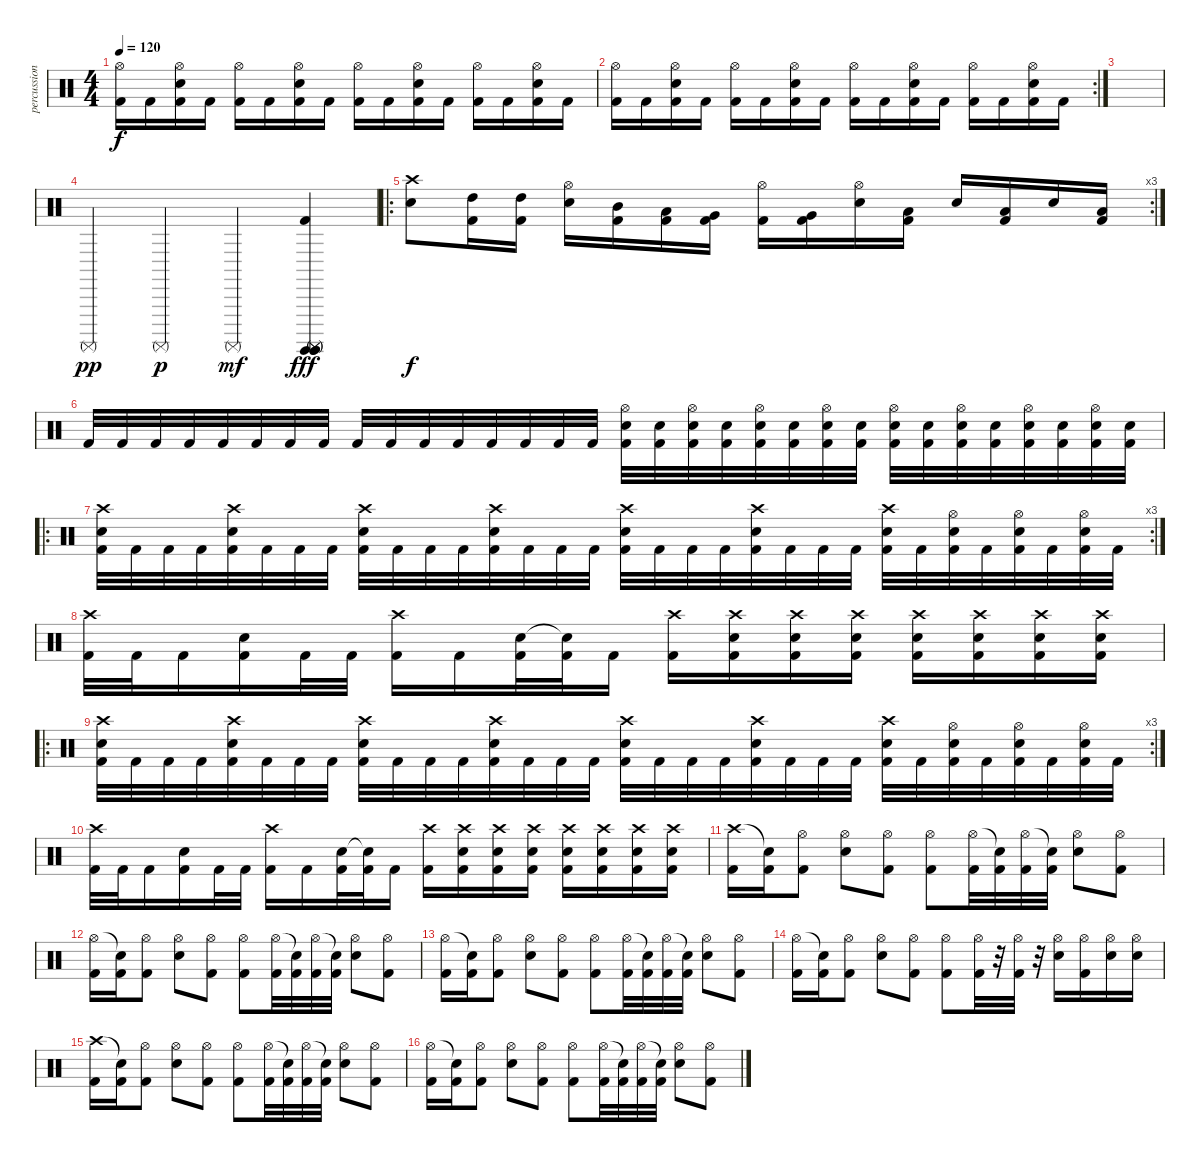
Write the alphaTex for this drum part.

\track ("percussions" "percussion") {instrument percussion}
\staff {score}
\articulation defaults
\ts (4 4)
\tempo 120
\clef neutral
\ks c
("Hi-Hat (open)" "Kick (hit) 2").16{dy f} "Kick (hit) 2".16 ("Hi-Hat (open)" "Electric Snare (hit)" "Kick (hit) 2").16 "Kick (hit) 2".16 ("Hi-Hat (open)" "Kick (hit) 2").16 "Kick (hit) 2".16 ("Hi-Hat (open)" "Electric Snare (hit)" "Kick (hit) 2").16 "Kick (hit) 2".16 ("Hi-Hat (open)" "Kick (hit) 2").16 "Kick (hit) 2".16 ("Hi-Hat (open)" "Electric Snare (hit)" "Kick (hit) 2").16 "Kick (hit) 2".16 ("Hi-Hat (open)" "Kick (hit) 2").16 "Kick (hit) 2".16 ("Hi-Hat (open)" "Electric Snare (hit)" "Kick (hit) 2").16 "Kick (hit) 2".16 |
\rc 2
("Hi-Hat (open)" "Kick (hit) 2").16 "Kick (hit) 2".16 ("Hi-Hat (open)" "Electric Snare (hit)" "Kick (hit) 2").16 "Kick (hit) 2".16 ("Hi-Hat (open)" "Kick (hit) 2").16 "Kick (hit) 2".16 ("Hi-Hat (open)" "Electric Snare (hit)" "Kick (hit) 2").16 "Kick (hit) 2".16 ("Hi-Hat (open)" "Kick (hit) 2").16 "Kick (hit) 2".16 ("Hi-Hat (open)" "Electric Snare (hit)" "Kick (hit) 2").16 "Kick (hit) 2".16 ("Hi-Hat (open)" "Kick (hit) 2").16 "Kick (hit) 2".16 ("Hi-Hat (open)" "Electric Snare (hit)" "Kick (hit) 2").16 "Kick (hit) 2".16 |
|
"Surdo (mute)".4{dy pp} "Surdo (mute)".4{dy p} "Surdo (mute)".4{dy mf} ("Kick (hit) 2" "Surdo (hit)" "Surdo (hit)" "Surdo (hit)" "Surdo (mute)" "Surdo (mute)").4{dy fff} |
\ro
\rc 3
("Crash high (hit)" "Electric Snare (hit)").8{dy f} ("High Tom (hit)" "Kick (hit) 2").16 ("High Tom (hit)" "Kick (hit) 2").16 ("Hi-Hat (open)" "Electric Snare (hit)").16 ("Mid Tom (hit)" "Kick (hit) 2").16 ("Low Tom (hit)" "Kick (hit) 2").16 ("Very Low Tom (hit)" "Kick (hit) 2").16 ("Hi-Hat (open)" "Kick (hit) 2").16 ("Very Low Tom (hit)" "Kick (hit) 2").16 ("Hi-Hat (open)" "Electric Snare (hit)").16 ("Low Floor Tom (hit)" "Kick (hit) 2").16 "Electric Snare (hit)".16 ("Low Floor Tom (hit)" "Kick (hit) 2").16 "Electric Snare (hit)".16 ("Low Floor Tom (hit)" "Kick (hit) 2").16 |
"Kick (hit) 2".32 "Kick (hit) 2".32 "Kick (hit) 2".32 "Kick (hit) 2".32 "Kick (hit) 2".32 "Kick (hit) 2".32 "Kick (hit) 2".32 "Kick (hit) 2".32 "Kick (hit) 2".32 "Kick (hit) 2".32 "Kick (hit) 2".32 "Kick (hit) 2".32 "Kick (hit) 2".32 "Kick (hit) 2".32 "Kick (hit) 2".32 "Kick (hit) 2".32 ("Hi-Hat (open)" "Kick (hit) 2" "Electric Snare (hit)").32 ("Kick (hit) 2" "Electric Snare (hit)").32 ("Hi-Hat (open)" "Kick (hit) 2" "Electric Snare (hit)").32 ("Kick (hit) 2" "Electric Snare (hit)").32 ("Hi-Hat (open)" "Kick (hit) 2" "Electric Snare (hit)").32 ("Kick (hit) 2" "Electric Snare (hit)").32 ("Hi-Hat (open)" "Kick (hit) 2" "Electric Snare (hit)").32 ("Kick (hit) 2" "Electric Snare (hit)").32 ("Hi-Hat (open)" "Kick (hit) 2" "Electric Snare (hit)").32 ("Kick (hit) 2" "Electric Snare (hit)").32 ("Hi-Hat (open)" "Kick (hit) 2" "Electric Snare (hit)").32 ("Kick (hit) 2" "Electric Snare (hit)").32 ("Hi-Hat (open)" "Kick (hit) 2" "Electric Snare (hit)").32 ("Kick (hit) 2" "Electric Snare (hit)").32 ("Hi-Hat (open)" "Kick (hit) 2" "Electric Snare (hit)").32 ("Kick (hit) 2" "Electric Snare (hit)").32 |
\ro
\rc 3
("Crash high (hit)" "Electric Snare (hit)" "Kick (hit) 2").32 "Kick (hit) 2".32 "Kick (hit) 2".32 "Kick (hit) 2".32 ("Crash high (hit)" "Electric Snare (hit)" "Kick (hit) 2").32 "Kick (hit) 2".32 "Kick (hit) 2".32 "Kick (hit) 2".32 ("Crash high (hit)" "Electric Snare (hit)" "Kick (hit) 2").32 "Kick (hit) 2".32 "Kick (hit) 2".32 "Kick (hit) 2".32 ("Crash high (hit)" "Electric Snare (hit)" "Kick (hit) 2").32 "Kick (hit) 2".32 "Kick (hit) 2".32 "Kick (hit) 2".32 ("Crash high (hit)" "Electric Snare (hit)" "Kick (hit) 2").32 "Kick (hit) 2".32 "Kick (hit) 2".32 "Kick (hit) 2".32 ("Crash high (hit)" "Electric Snare (hit)" "Kick (hit) 2").32 "Kick (hit) 2".32 "Kick (hit) 2".32 "Kick (hit) 2".32 ("Crash high (hit)" "Electric Snare (hit)" "Kick (hit) 2").32 "Kick (hit) 2".32 ("Hi-Hat (open)" "Electric Snare (hit)" "Kick (hit) 2").32 "Kick (hit) 2".32 ("Hi-Hat (open)" "Electric Snare (hit)" "Kick (hit) 2").32 "Kick (hit) 2".32 ("Hi-Hat (open)" "Electric Snare (hit)" "Kick (hit) 2").32 "Kick (hit) 2".32 |
("Crash high (hit)" "Kick (hit) 2").32 "Kick (hit) 2".32 "Kick (hit) 2".16 ("Electric Snare (hit)" "Kick (hit) 2").16 "Kick (hit) 2".32 "Kick (hit) 2".32 ("Crash high (hit)" "Kick (hit) 2").16 "Kick (hit) 2".16 ("Electric Snare (hit)" "Kick (hit) 2").32 ("Electric Snare (hit)"{t} "Kick (hit) 2").32 "Kick (hit) 2".16 ("Crash high (hit)" "Kick (hit) 2").16 ("Crash high (hit)" "Electric Snare (hit)" "Kick (hit) 2").16 ("Crash high (hit)" "Electric Snare (hit)" "Kick (hit) 2").16 ("Crash high (hit)" "Electric Snare (hit)" "Kick (hit) 2").16 ("Crash high (hit)" "Electric Snare (hit)" "Kick (hit) 2").16 ("Crash high (hit)" "Electric Snare (hit)" "Kick (hit) 2").16 ("Crash high (hit)" "Electric Snare (hit)" "Kick (hit) 2").16 ("Crash high (hit)" "Electric Snare (hit)" "Kick (hit) 2").16 |
\ro
\rc 3
("Crash high (hit)" "Electric Snare (hit)" "Kick (hit) 2").32 "Kick (hit) 2".32 "Kick (hit) 2".32 "Kick (hit) 2".32 ("Crash high (hit)" "Electric Snare (hit)" "Kick (hit) 2").32 "Kick (hit) 2".32 "Kick (hit) 2".32 "Kick (hit) 2".32 ("Crash high (hit)" "Electric Snare (hit)" "Kick (hit) 2").32 "Kick (hit) 2".32 "Kick (hit) 2".32 "Kick (hit) 2".32 ("Crash high (hit)" "Electric Snare (hit)" "Kick (hit) 2").32 "Kick (hit) 2".32 "Kick (hit) 2".32 "Kick (hit) 2".32 ("Crash high (hit)" "Electric Snare (hit)" "Kick (hit) 2").32 "Kick (hit) 2".32 "Kick (hit) 2".32 "Kick (hit) 2".32 ("Crash high (hit)" "Electric Snare (hit)" "Kick (hit) 2").32 "Kick (hit) 2".32 "Kick (hit) 2".32 "Kick (hit) 2".32 ("Crash high (hit)" "Electric Snare (hit)" "Kick (hit) 2").32 "Kick (hit) 2".32 ("Hi-Hat (open)" "Electric Snare (hit)" "Kick (hit) 2").32 "Kick (hit) 2".32 ("Hi-Hat (open)" "Electric Snare (hit)" "Kick (hit) 2").32 "Kick (hit) 2".32 ("Hi-Hat (open)" "Electric Snare (hit)" "Kick (hit) 2").32 "Kick (hit) 2".32 |
("Crash high (hit)" "Kick (hit) 2").32 "Kick (hit) 2".32 "Kick (hit) 2".16 ("Electric Snare (hit)" "Kick (hit) 2").16 "Kick (hit) 2".32 "Kick (hit) 2".32 ("Crash high (hit)" "Kick (hit) 2").16 "Kick (hit) 2".16 ("Electric Snare (hit)" "Kick (hit) 2").32 ("Electric Snare (hit)"{t} "Kick (hit) 2").32 "Kick (hit) 2".16 ("Crash high (hit)" "Kick (hit) 2").16 ("Crash high (hit)" "Electric Snare (hit)" "Kick (hit) 2").16 ("Crash high (hit)" "Electric Snare (hit)" "Kick (hit) 2").16 ("Crash high (hit)" "Electric Snare (hit)" "Kick (hit) 2").16 ("Crash high (hit)" "Electric Snare (hit)" "Kick (hit) 2").16 ("Crash high (hit)" "Electric Snare (hit)" "Kick (hit) 2").16 ("Crash high (hit)" "Electric Snare (hit)" "Kick (hit) 2").16 ("Crash high (hit)" "Electric Snare (hit)" "Kick (hit) 2").16 |
("Crash high (hit)" "Kick (hit) 2").16 ("Snare (hit)"{t} "Kick (hit) 2").16 ("Hi-Hat (open)" "Kick (hit) 2").8 ("Hi-Hat (open)" "Electric Snare (hit)").8 ("Hi-Hat (open)" "Kick (hit) 2").8 ("Hi-Hat (open)" "Kick (hit) 2").8 ("Hi-Hat (open)" "Kick (hit) 2").32 ("Snare (hit)"{t} "Kick (hit) 2").32 ("Hi-Hat (open)" "Kick (hit) 2").32 ("Snare (hit)"{t} "Kick (hit) 2").32 ("Hi-Hat (open)" "Electric Snare (hit)").8 ("Hi-Hat (open)" "Kick (hit) 2").8 |
("Hi-Hat (open)" "Kick (hit) 2").16 ("Snare (hit)"{t} "Kick (hit) 2").16 ("Hi-Hat (open)" "Kick (hit) 2").8 ("Hi-Hat (open)" "Electric Snare (hit)").8 ("Hi-Hat (open)" "Kick (hit) 2").8 ("Hi-Hat (open)" "Kick (hit) 2").8 ("Hi-Hat (open)" "Kick (hit) 2").32 ("Snare (hit)"{t} "Kick (hit) 2").32 ("Hi-Hat (open)" "Kick (hit) 2").32 ("Snare (hit)"{t} "Kick (hit) 2").32 ("Hi-Hat (open)" "Electric Snare (hit)").8 ("Hi-Hat (open)" "Kick (hit) 2").8 |
("Hi-Hat (open)" "Kick (hit) 2").16 ("Snare (hit)"{t} "Kick (hit) 2").16 ("Hi-Hat (open)" "Kick (hit) 2").8 ("Hi-Hat (open)" "Electric Snare (hit)").8 ("Hi-Hat (open)" "Kick (hit) 2").8 ("Hi-Hat (open)" "Kick (hit) 2").8 ("Hi-Hat (open)" "Kick (hit) 2").32 ("Snare (hit)"{t} "Kick (hit) 2").32 ("Hi-Hat (open)" "Kick (hit) 2").32 ("Snare (hit)"{t} "Kick (hit) 2").32 ("Hi-Hat (open)" "Electric Snare (hit)").8 ("Hi-Hat (open)" "Kick (hit) 2").8 |
("Hi-Hat (open)" "Kick (hit) 2").16 ("Snare (hit)"{t} "Kick (hit) 2").16 ("Hi-Hat (open)" "Kick (hit) 2").8 ("Hi-Hat (open)" "Electric Snare (hit)").8 ("Hi-Hat (open)" "Kick (hit) 2").8 ("Hi-Hat (open)" "Kick (hit) 2").8 ("Hi-Hat (open)" "Kick (hit) 2").32 r.32 ("Hi-Hat (open)" "Kick (hit) 2").32 r.32 ("Hi-Hat (open)" "Electric Snare (hit)").16 ("Hi-Hat (open)" "Kick (hit) 2").16 ("Hi-Hat (open)" "Electric Snare (hit)").16 ("Hi-Hat (open)" "Electric Snare (hit)").16 |
("Crash high (hit)" "Kick (hit) 2").16 ("Snare (hit)"{t} "Kick (hit) 2").16 ("Hi-Hat (open)" "Kick (hit) 2").8 ("Hi-Hat (open)" "Electric Snare (hit)").8 ("Hi-Hat (open)" "Kick (hit) 2").8 ("Hi-Hat (open)" "Kick (hit) 2").8 ("Hi-Hat (open)" "Kick (hit) 2").32 ("Snare (hit)"{t} "Kick (hit) 2").32 ("Hi-Hat (open)" "Kick (hit) 2").32 ("Snare (hit)"{t} "Kick (hit) 2").32 ("Hi-Hat (open)" "Electric Snare (hit)").8 ("Hi-Hat (open)" "Kick (hit) 2").8 |
("Hi-Hat (open)" "Kick (hit) 2").16 ("Snare (hit)"{t} "Kick (hit) 2").16 ("Hi-Hat (open)" "Kick (hit) 2").8 ("Hi-Hat (open)" "Electric Snare (hit)").8 ("Hi-Hat (open)" "Kick (hit) 2").8 ("Hi-Hat (open)" "Kick (hit) 2").8 ("Hi-Hat (open)" "Kick (hit) 2").32 ("Snare (hit)"{t} "Kick (hit) 2").32 ("Hi-Hat (open)" "Kick (hit) 2").32 ("Snare (hit)"{t} "Kick (hit) 2").32 ("Hi-Hat (open)" "Electric Snare (hit)").8 ("Hi-Hat (open)" "Kick (hit) 2").8
